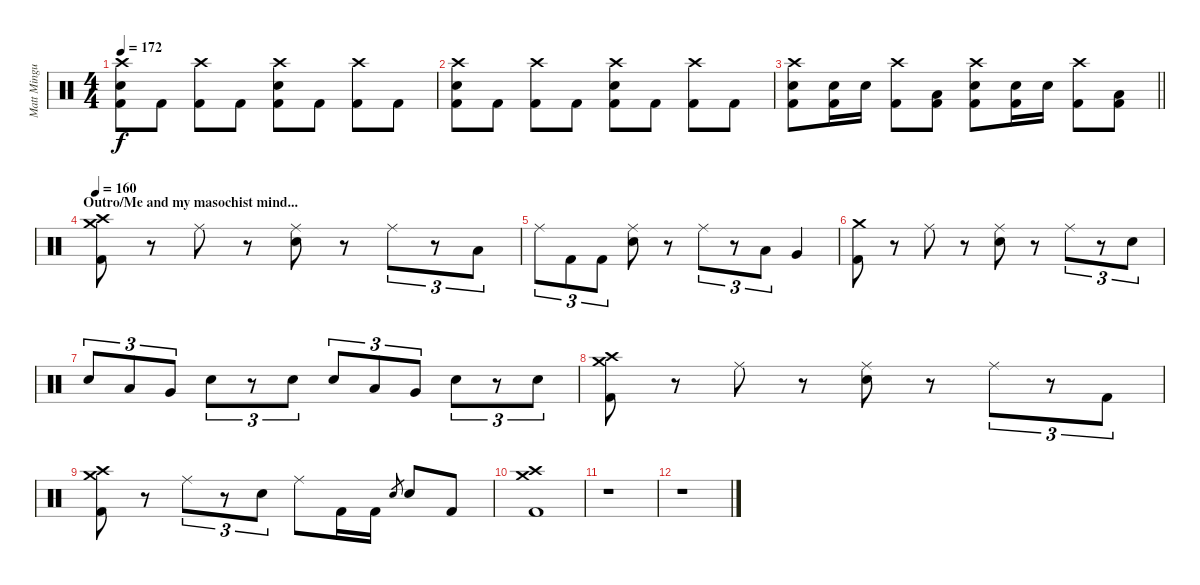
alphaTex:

\track ("Matt Mingus (Drum Kit)" "Matt Mingu") {instrument percussion}
\staff {score}
\articulation defaults
\ts (4 4)
\tempo 172
\clef neutral
\ks c
("Crash high (hit)" "Electric Snare (hit)" "Kick (hit) 2").8{dy f} "Kick (hit) 2".8 ("Crash high (hit)" "Kick (hit) 2").8 "Kick (hit) 2".8 ("Crash high (hit)" "Electric Snare (hit)" "Kick (hit) 2").8 "Kick (hit) 2".8 ("Crash high (hit)" "Kick (hit) 2").8 "Kick (hit) 2".8 |
("Crash high (hit)" "Electric Snare (hit)" "Kick (hit) 2").8 "Kick (hit) 2".8 ("Crash high (hit)" "Kick (hit) 2").8 "Kick (hit) 2".8 ("Crash high (hit)" "Electric Snare (hit)" "Kick (hit) 2").8 "Kick (hit) 2".8 ("Crash high (hit)" "Kick (hit) 2").8 "Kick (hit) 2".8 |
\barLineRight lightlight
("Crash high (hit)" "Electric Snare (hit)" "Kick (hit) 2").8 ("Electric Snare (hit)" "Kick (hit) 2").16 "Electric Snare (hit)".16 ("Crash high (hit)" "Kick (hit) 2").8 ("Low Tom (hit)" "Kick (hit) 2").8 ("Crash high (hit)" "Electric Snare (hit)" "Kick (hit) 2").8 ("Electric Snare (hit)" "Kick (hit) 2").16 "Electric Snare (hit)".16 ("Crash high (hit)" "Kick (hit) 2").8 ("Low Tom (hit)" "Kick (hit) 2").8 |
\section ("" "Outro/Me and my masochist mind...")
\tempo 160
("Crash medium (hit)" "Crash high (hit)" "Kick (hit) 2").8 r.8 "Ride (middle)".8 r.8 ("Ride (middle)" "Electric Snare (hit)").8 r.8 "Ride (middle)".8{tu (3 2)} r.8{tu (3 2)} "Low Tom (hit)".8{tu (3 2)} |
"Ride (middle)".8{tu (3 2)} "Kick (hit) 2".8{tu (3 2)} "Kick (hit) 2".8{tu (3 2)} ("Ride (middle)" "Electric Snare (hit)").8 r.8 "Ride (middle)".8{tu (3 2)} r.8{tu (3 2)} "Low Tom (hit)".8{tu (3 2)} "Very Low Tom (hit)".4 |
("Crash medium (hit)" "Kick (hit) 2").8 r.8 "Ride (middle)".8 r.8 ("Ride (middle)" "Electric Snare (hit)").8 r.8 "Ride (middle)".8{tu (3 2)} r.8{tu (3 2)} "Electric Snare (hit)".8{tu (3 2)} |
"Electric Snare (hit)".8{tu (3 2)} "Low Tom (hit)".8{tu (3 2)} "Very Low Tom (hit)".8{tu (3 2)} "Electric Snare (hit)".8{tu (3 2)} r.8{tu (3 2)} "Electric Snare (hit)".8{tu (3 2)} "Electric Snare (hit)".8{tu (3 2)} "Low Tom (hit)".8{tu (3 2)} "Very Low Tom (hit)".8{tu (3 2)} "Electric Snare (hit)".8{tu (3 2)} r.8{tu (3 2)} "Electric Snare (hit)".8{tu (3 2)} |
("Crash medium (hit)" "Crash high (hit)" "Kick (hit) 2").8 r.8 "Ride (middle)".8 r.8 ("Ride (middle)" "Electric Snare (hit)").8 r.8 "Ride (middle)".8{tu (3 2)} r.8{tu (3 2)} "Kick (hit) 2".8{tu (3 2)} |
("Crash medium (hit)" "Crash high (hit)" "Kick (hit) 2").8 r.8 "Ride (middle)".8{tu (3 2)} r.8{tu (3 2)} "Electric Snare (hit)".8{tu (3 2)} "Ride (middle)".8 "Kick (hit) 2".16 "Kick (hit) 2".16 "Electric Snare (hit)".8{gr} "Electric Snare (hit)".8 "Kick (hit) 2".8 |
("Crash medium (hit)" "Crash high (hit)" "Kick (hit) 2").1 |
r.1 |
r.1
